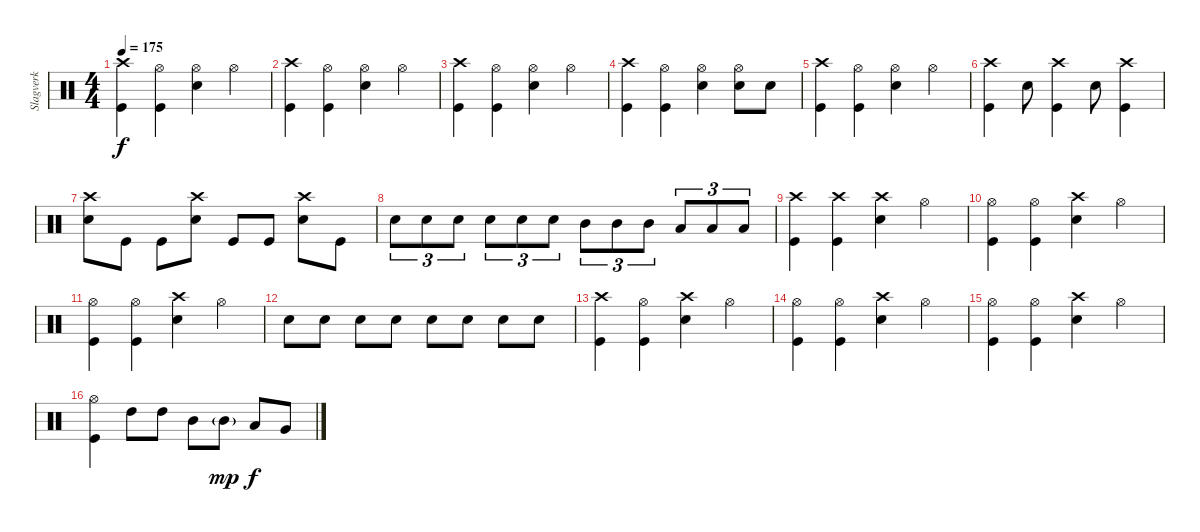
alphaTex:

\track ("Slagverk" "Slagverk") {instrument percussion}
\staff {score}
\articulation defaults
\ts (4 4)
\tempo 175
\clef neutral
\ks c
("Crash high (hit)" "Kick (hit)").4{dy f} ("Hi-Hat (open)" "Kick (hit)").4 ("Hi-Hat (open)" "Electric Snare (hit)").4 "Hi-Hat (open)".4 |
("Crash high (hit)" "Kick (hit)").4 ("Hi-Hat (open)" "Kick (hit)").4 ("Hi-Hat (open)" "Electric Snare (hit)").4 "Hi-Hat (open)".4 |
("Crash high (hit)" "Kick (hit)").4 ("Hi-Hat (open)" "Kick (hit)").4 ("Hi-Hat (open)" "Electric Snare (hit)").4 "Hi-Hat (open)".4 |
("Crash high (hit)" "Kick (hit)").4 ("Hi-Hat (open)" "Kick (hit)").4 ("Hi-Hat (open)" "Electric Snare (hit)").4 ("Hi-Hat (open)" "Electric Snare (hit)").8 "Electric Snare (hit)".8 |
("Crash high (hit)" "Kick (hit)").4 ("Hi-Hat (open)" "Kick (hit)").4 ("Hi-Hat (open)" "Electric Snare (hit)").4 "Hi-Hat (open)".4 |
("Crash high (hit)" "Kick (hit)").4 "Electric Snare (hit)".8 ("Crash high (hit)" "Kick (hit)").4 "Electric Snare (hit)".8 ("Crash high (hit)" "Kick (hit)").4 |
("Crash high (hit)" "Electric Snare (hit)").8 "Kick (hit)".8 "Kick (hit)".8 ("Crash high (hit)" "Electric Snare (hit)").8 "Kick (hit)".8 "Kick (hit)".8 ("Crash high (hit)" "Electric Snare (hit)").8 "Kick (hit)".8 |
"Electric Snare (hit)".8{tu (3 2)} "Electric Snare (hit)".8{tu (3 2)} "Electric Snare (hit)".8{tu (3 2)} "Electric Snare (hit)".8{tu (3 2)} "Electric Snare (hit)".8{tu (3 2)} "Electric Snare (hit)".8{tu (3 2)} "Mid Tom (hit)".8{tu (3 2)} "Mid Tom (hit)".8{tu (3 2)} "Mid Tom (hit)".8{tu (3 2)} "Low Tom (hit)".8{tu (3 2)} "Low Tom (hit)".8{tu (3 2)} "Low Tom (hit)".8{tu (3 2)} |
("Crash high (hit)" "Kick (hit)").4 ("Crash high (hit)" "Kick (hit)").4 ("Crash high (hit)" "Snare (hit) 2").4 "Hi-Hat (open)".4 |
("Hi-Hat (open)" "Kick (hit)").4 ("Hi-Hat (open)" "Kick (hit)").4 ("Crash high (hit)" "Snare (hit) 2").4 "Hi-Hat (open)".4 |
("Hi-Hat (open)" "Kick (hit)").4 ("Hi-Hat (open)" "Kick (hit)").4 ("Crash high (hit)" "Snare (hit) 2").4 "Hi-Hat (open)".4 |
"Snare (hit) 2".8 "Snare (hit) 2".8 "Snare (hit) 2".8 "Snare (hit) 2".8 "Snare (hit) 2".8 "Snare (hit) 2".8 "Snare (hit) 2".8 "Snare (hit) 2".8 |
("Crash high (hit)" "Kick (hit)").4 ("Hi-Hat (open)" "Kick (hit)").4 ("Crash high (hit)" "Electric Snare (hit)").4 "Hi-Hat (open)".4 |
("Hi-Hat (open)" "Kick (hit)").4 ("Hi-Hat (open)" "Kick (hit)").4 ("Crash high (hit)" "Electric Snare (hit)").4 "Hi-Hat (open)".4 |
("Hi-Hat (open)" "Kick (hit)").4 ("Hi-Hat (open)" "Kick (hit)").4 ("Crash high (hit)" "Electric Snare (hit)").4 "Hi-Hat (open)".4 |
("Hi-Hat (open)" "Kick (hit)").4 "High Tom (hit)".8 "High Tom (hit)".8 "Mid Tom (hit)".8 "Mid Tom (hit)"{g}.8{dy mp} "Low Tom (hit)".8{dy f} "Very Low Tom (hit)".8
